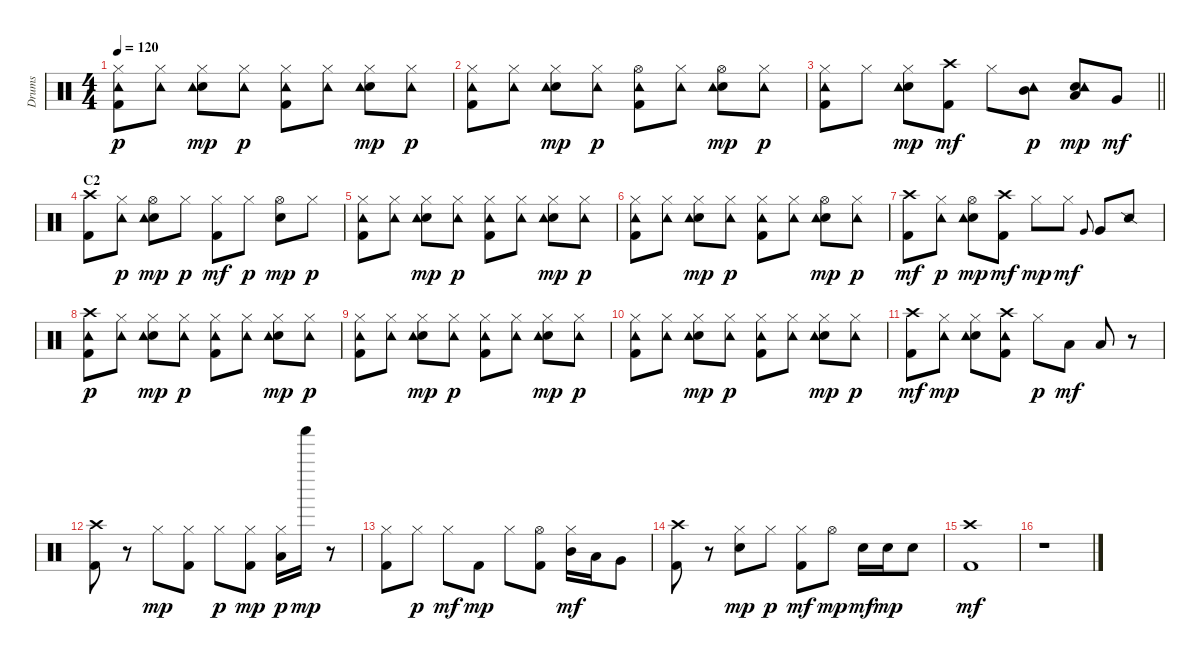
\track ("Drums" "Drums") {instrument percussion}
\staff {score}
\articulation defaults
\ts (4 4)
\tempo 120
\clef neutral
\ks c
("Hi-Hat (closed)" "Kick (hit) 2" "Tambourine (hit)").8{dy p} ("Hi-Hat (closed)" "Tambourine (hit)").8 ("Hi-Hat (closed)" "Snare (hit) 2" "Tambourine (hit)").8{dy mp} ("Hi-Hat (closed)" "Tambourine (hit)").8{dy p} ("Hi-Hat (closed)" "Kick (hit) 2" "Tambourine (hit)").8 ("Hi-Hat (closed)" "Tambourine (hit)").8 ("Hi-Hat (closed)" "Snare (hit) 2" "Tambourine (hit)").8{dy mp} ("Hi-Hat (closed)" "Tambourine (hit)").8{dy p} |
("Hi-Hat (closed)" "Kick (hit) 2" "Tambourine (hit)").8 ("Hi-Hat (closed)" "Tambourine (hit)").8 ("Hi-Hat (closed)" "Snare (hit) 2" "Tambourine (hit)").8{dy mp} ("Hi-Hat (closed)" "Tambourine (hit)").8{dy p} ("Hi-Hat (open)" "Kick (hit) 2" "Tambourine (hit)").8 ("Hi-Hat (closed)" "Tambourine (hit)").8 ("Hi-Hat (open)" "Snare (hit) 2" "Tambourine (hit)").8{dy mp} ("Hi-Hat (closed)" "Tambourine (hit)").8{dy p} |
\barLineRight lightlight
("Hi-Hat (closed)" "Kick (hit) 2" "Tambourine (hit)").8 "Hi-Hat (closed)".8 ("Hi-Hat (closed)" "Snare (hit) 2" "Tambourine (hit)").8{dy mp} ("Crash high (hit)" "Kick (hit) 2").8{dy mf} "Hi-Hat (closed)".8 ("Mid Tom (hit)" "Tambourine (hit)").8{dy p} ("Low Tom (hit)" "Snare (hit) 2" "Tambourine (hit)").8{dy mp} "Very Low Tom (hit)".8{dy mf} |
\section ("" "C2")
("Crash high (hit)" "Kick (hit) 2").8 ("Hi-Hat (closed)" "Tambourine (hit)").8{dy p} ("Hi-Hat (open)" "Snare (hit) 2" "Tambourine (hit)").8{dy mp} "Hi-Hat (closed)".8{dy p} ("Hi-Hat (closed)" "Kick (hit) 2").8{dy mf} "Hi-Hat (closed)".8{dy p} ("Hi-Hat (open)" "Snare (hit) 2").8{dy mp} "Hi-Hat (closed)".8{dy p} |
("Hi-Hat (closed)" "Kick (hit) 2" "Tambourine (hit)").8 ("Hi-Hat (closed)" "Tambourine (hit)").8 ("Hi-Hat (closed)" "Snare (hit) 2" "Tambourine (hit)").8{dy mp} ("Hi-Hat (closed)" "Tambourine (hit)").8{dy p} ("Hi-Hat (closed)" "Kick (hit) 2" "Tambourine (hit)").8 ("Hi-Hat (closed)" "Tambourine (hit)").8 ("Hi-Hat (closed)" "Snare (hit) 2" "Tambourine (hit)").8{dy mp} ("Hi-Hat (closed)" "Tambourine (hit)").8{dy p} |
("Hi-Hat (closed)" "Kick (hit) 2" "Tambourine (hit)").8 ("Hi-Hat (closed)" "Tambourine (hit)").8 ("Hi-Hat (closed)" "Snare (hit) 2" "Tambourine (hit)").8{dy mp} ("Hi-Hat (closed)" "Tambourine (hit)").8{dy p} ("Hi-Hat (closed)" "Kick (hit) 2" "Tambourine (hit)").8 ("Hi-Hat (closed)" "Tambourine (hit)").8 ("Hi-Hat (open)" "Snare (hit) 2" "Tambourine (hit)").8{dy mp} ("Hi-Hat (closed)" "Tambourine (hit)").8{dy p} |
("Crash high (hit)" "Kick (hit) 2").8{dy mf} ("Hi-Hat (closed)" "Tambourine (hit)").8{dy p} ("Hi-Hat (open)" "Snare (hit) 2" "Tambourine (hit)").8{dy mp} ("Crash high (hit)" "Kick (hit) 2").8{dy mf} "Hi-Hat (closed)".8{dy mp} "Hi-Hat (closed)".8{dy mf} "Very Low Tom (hit)".8{gr onbeat} "Very Low Tom (hit)".8 "Snare (side stick) 2".8 |
("Crash high (hit)" "Kick (hit) 2" "Tambourine (hit)").8{dy p} ("Hi-Hat (closed)" "Tambourine (hit)").8 ("Hi-Hat (closed)" "Snare (hit) 2" "Tambourine (hit)").8{dy mp} ("Hi-Hat (closed)" "Tambourine (hit)").8{dy p} ("Hi-Hat (closed)" "Kick (hit) 2" "Tambourine (hit)").8 ("Hi-Hat (closed)" "Tambourine (hit)").8 ("Hi-Hat (closed)" "Snare (hit) 2" "Tambourine (hit)").8{dy mp} ("Hi-Hat (closed)" "Tambourine (hit)").8{dy p} |
("Hi-Hat (closed)" "Kick (hit) 2" "Tambourine (hit)").8 ("Hi-Hat (closed)" "Tambourine (hit)").8 ("Hi-Hat (closed)" "Snare (hit) 2" "Tambourine (hit)").8{dy mp} ("Hi-Hat (closed)" "Tambourine (hit)").8{dy p} ("Hi-Hat (closed)" "Kick (hit) 2" "Tambourine (hit)").8 ("Hi-Hat (closed)" "Tambourine (hit)").8 ("Hi-Hat (closed)" "Snare (hit) 2" "Tambourine (hit)").8{dy mp} ("Hi-Hat (closed)" "Tambourine (hit)").8{dy p} |
("Hi-Hat (closed)" "Kick (hit) 2" "Tambourine (hit)").8 ("Hi-Hat (closed)" "Tambourine (hit)").8 ("Hi-Hat (closed)" "Snare (hit) 2" "Tambourine (hit)").8{dy mp} ("Hi-Hat (closed)" "Tambourine (hit)").8{dy p} ("Hi-Hat (closed)" "Kick (hit) 2" "Tambourine (hit)").8 ("Hi-Hat (closed)" "Tambourine (hit)").8 ("Hi-Hat (closed)" "Snare (hit) 2" "Tambourine (hit)").8{dy mp} ("Hi-Hat (closed)" "Tambourine (hit)").8{dy p} |
("Crash high (hit)" "Kick (hit) 2").8{dy mf} ("Hi-Hat (closed)" "Tambourine (hit)").8{dy mp} ("Hi-Hat (closed)" "Snare (hit) 2" "Tambourine (hit)").8 ("Crash high (hit)" "Kick (hit) 2" "Tambourine (hit)").8 "Hi-Hat (closed)".8{dy p} "Low Tom (hit)".8{dy mf} "Low Floor Tom (hit)".8 r.8 |
("Crash high (hit)" "Kick (hit) 2").8 r.8 "Hi-Hat (closed)".8{dy mp} ("Hi-Hat (closed)" "Kick (hit) 2").8 "Hi-Hat (closed)".8{dy p} ("Hi-Hat (closed)" "Kick (hit) 2").8{dy mp} ("Hi-Hat (closed)" "Low Tom (hit)").16{dy p} "Shaker (hit)".16{dy mp} r.8 |
("Hi-Hat (closed)" "Kick (hit) 2").8 "Hi-Hat (closed)".8{dy p} "Hi-Hat (closed)".8{dy mf} "Kick (hit) 2".8{dy mp} "Hi-Hat (closed)".8 ("Hi-Hat (open)" "Kick (hit) 2").8 ("Hi-Hat (closed)" "Mid Tom (hit)").16{dy mf} "Low Tom (hit)".16 "Very Low Tom (hit)".8 |
("Crash high (hit)" "Kick (hit) 2").8 r.8 ("Hi-Hat (closed)" "Snare (hit) 2").8{dy mp} "Hi-Hat (closed)".8{dy p} ("Hi-Hat (closed)" "Kick (hit) 2").8{dy mf} "Hi-Hat (open)".8{dy mp} "Snare (hit) 2".16{dy mf} "Snare (hit) 2".16{dy mp} "Snare (hit) 2".8 |
("Crash high (hit)" "Kick (hit) 2").1{dy mf} |
r.1
